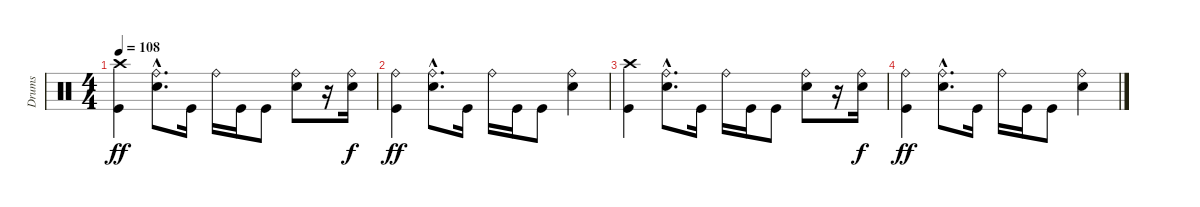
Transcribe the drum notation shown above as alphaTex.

\track ("Drums" "Drums") {instrument percussion}
\staff {score}
\articulation defaults
\ts (4 4)
\tempo 108
\clef neutral
\ks c
("Crash high (hit)" "Kick (hit)").4{dy ff} ("Ride (bell)"{hac} "Electric Snare (hit)"{hac}).8{d} "Kick (hit)".16 "Ride (bell)".16 "Kick (hit)".16 "Kick (hit)".8 ("Ride (bell)" "Electric Snare (hit)").8 r.16 ("Ride (bell)" "Electric Snare (hit)").16{dy f} |
("Ride (bell)" "Kick (hit)").4{dy ff} ("Ride (bell)"{hac} "Electric Snare (hit)"{hac}).8{d} "Kick (hit)".16 "Ride (bell)".16 "Kick (hit)".16 "Kick (hit)".8 ("Ride (bell)" "Electric Snare (hit)").4 |
("Crash high (hit)" "Kick (hit)").4 ("Ride (bell)"{hac} "Electric Snare (hit)"{hac}).8{d} "Kick (hit)".16 "Ride (bell)".16 "Kick (hit)".16 "Kick (hit)".8 ("Ride (bell)" "Electric Snare (hit)").8 r.16 ("Ride (bell)" "Electric Snare (hit)").16{dy f} |
("Ride (bell)" "Kick (hit)").4{dy ff} ("Ride (bell)"{hac} "Electric Snare (hit)"{hac}).8{d} "Kick (hit)".16 "Ride (bell)".16 "Kick (hit)".16 "Kick (hit)".8 ("Ride (bell)" "Electric Snare (hit)").4
